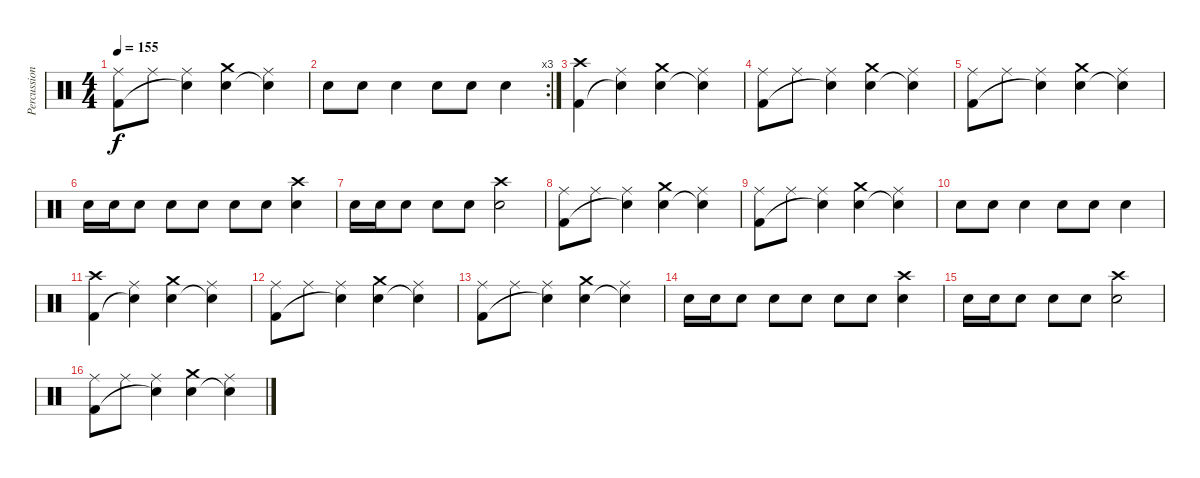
\track ("Percussion" "Percussion") {instrument percussion}
\staff {score}
\articulation defaults
\ts (4 4)
\tempo 155
\clef neutral
\ks c
("Ride (middle)" "Kick (hit) 2").8{dy f} "Ride (middle)".8 ("Ride (middle)" "Snare (hit)"{t}).4 ("Crash medium (hit)" "Electric Snare (hit)").4 ("Ride (middle)" "Snare (hit)"{t}).4 |
\rc 3 "Electric Snare (hit)".8 "Electric Snare (hit)".8 "Electric Snare (hit)".4 "Electric Snare (hit)".8 "Electric Snare (hit)".8 "Electric Snare (hit)".4
|
("Crash high (hit)" "Kick (hit) 2").4 ("Ride (middle)" "Snare (hit)"{t}).4 ("Crash medium (hit)" "Electric Snare (hit)").4 ("Ride (middle)" "Snare (hit)"{t}).4 |
("Ride (middle)" "Kick (hit) 2").8 "Ride (middle)".8 ("Ride (middle)" "Snare (hit)"{t}).4 ("Crash medium (hit)" "Electric Snare (hit)").4 ("Ride (middle)" "Snare (hit)"{t}).4 |
("Ride (middle)" "Kick (hit) 2").8 "Ride (middle)".8 ("Ride (middle)" "Snare (hit)"{t}).4 ("Crash medium (hit)" "Electric Snare (hit)").4 ("Ride (middle)" "Snare (hit)"{t}).4 |
"Electric Snare (hit)".16 "Electric Snare (hit)".16 "Electric Snare (hit)".8 "Electric Snare (hit)".8 "Electric Snare (hit)".8 "Electric Snare (hit)".8 "Electric Snare (hit)".8 ("Crash high (hit)" "Electric Snare (hit)").4 |
"Electric Snare (hit)".16 "Electric Snare (hit)".16 "Electric Snare (hit)".8 "Electric Snare (hit)".8 "Electric Snare (hit)".8 ("Crash high (hit)" "Electric Snare (hit)").2 |
("Ride (middle)" "Kick (hit) 2").8 "Ride (middle)".8 ("Ride (middle)" "Snare (hit)"{t}).4 ("Crash medium (hit)" "Electric Snare (hit)").4 ("Ride (middle)" "Snare (hit)"{t}).4 |
("Ride (middle)" "Kick (hit) 2").8 "Ride (middle)".8 ("Ride (middle)" "Snare (hit)"{t}).4 ("Crash medium (hit)" "Electric Snare (hit)").4 ("Ride (middle)" "Snare (hit)"{t}).4 |
"Electric Snare (hit)".8 "Electric Snare (hit)".8 "Electric Snare (hit)".4 "Electric Snare (hit)".8 "Electric Snare (hit)".8 "Electric Snare (hit)".4 |
("Crash high (hit)" "Kick (hit) 2").4 ("Ride (middle)" "Snare (hit)"{t}).4 ("Crash medium (hit)" "Electric Snare (hit)").4 ("Ride (middle)" "Snare (hit)"{t}).4 |
("Ride (middle)" "Kick (hit) 2").8 "Ride (middle)".8 ("Ride (middle)" "Snare (hit)"{t}).4 ("Crash medium (hit)" "Electric Snare (hit)").4 ("Ride (middle)" "Snare (hit)"{t}).4 |
("Ride (middle)" "Kick (hit) 2").8 "Ride (middle)".8 ("Ride (middle)" "Snare (hit)"{t}).4 ("Crash medium (hit)" "Electric Snare (hit)").4 ("Ride (middle)" "Snare (hit)"{t}).4 |
"Electric Snare (hit)".16 "Electric Snare (hit)".16 "Electric Snare (hit)".8 "Electric Snare (hit)".8 "Electric Snare (hit)".8 "Electric Snare (hit)".8 "Electric Snare (hit)".8 ("Crash high (hit)" "Electric Snare (hit)").4 |
"Electric Snare (hit)".16 "Electric Snare (hit)".16 "Electric Snare (hit)".8 "Electric Snare (hit)".8 "Electric Snare (hit)".8 ("Crash high (hit)" "Electric Snare (hit)").2 |
("Ride (middle)" "Kick (hit) 2").8 "Ride (middle)".8 ("Ride (middle)" "Snare (hit)"{t}).4 ("Crash medium (hit)" "Electric Snare (hit)").4 ("Ride (middle)" "Snare (hit)"{t}).4
